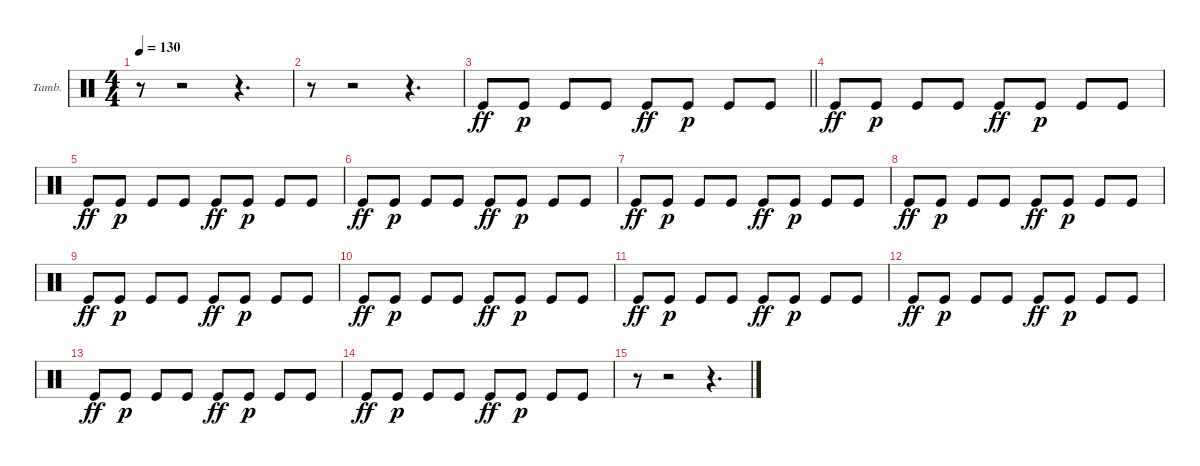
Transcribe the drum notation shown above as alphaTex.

\bracketExtendMode groupsimilarinstruments
\firstSystemTrackNameOrientation horizontal
\otherSystemsTrackNameOrientation horizontal
\track ("Tambourine" "Tamb.") {instrument percussion}
\staff {score}
\articulation defaults
\ts (4 4)
\tempo 130
\clef neutral
\ks c
r.8{dy p} r.2 r.4{d} |
r.8 r.2 r.4{d} |
\barLineRight lightlight "Kick (hit)".8{dy ff} "Kick (hit)".8{dy p} "Kick (hit)".8 "Kick (hit)".8 "Kick (hit)".8{dy ff} "Kick (hit)".8{dy p} "Kick (hit)".8 "Kick (hit)".8
|
"Kick (hit)".8{dy ff} "Kick (hit)".8{dy p} "Kick (hit)".8 "Kick (hit)".8 "Kick (hit)".8{dy ff} "Kick (hit)".8{dy p} "Kick (hit)".8 "Kick (hit)".8 |
"Kick (hit)".8{dy ff} "Kick (hit)".8{dy p} "Kick (hit)".8 "Kick (hit)".8 "Kick (hit)".8{dy ff} "Kick (hit)".8{dy p} "Kick (hit)".8 "Kick (hit)".8 |
"Kick (hit)".8{dy ff} "Kick (hit)".8{dy p} "Kick (hit)".8 "Kick (hit)".8 "Kick (hit)".8{dy ff} "Kick (hit)".8{dy p} "Kick (hit)".8 "Kick (hit)".8 |
"Kick (hit)".8{dy ff} "Kick (hit)".8{dy p} "Kick (hit)".8 "Kick (hit)".8 "Kick (hit)".8{dy ff} "Kick (hit)".8{dy p} "Kick (hit)".8 "Kick (hit)".8 |
"Kick (hit)".8{dy ff} "Kick (hit)".8{dy p} "Kick (hit)".8 "Kick (hit)".8 "Kick (hit)".8{dy ff} "Kick (hit)".8{dy p} "Kick (hit)".8 "Kick (hit)".8 |
"Kick (hit)".8{dy ff} "Kick (hit)".8{dy p} "Kick (hit)".8 "Kick (hit)".8 "Kick (hit)".8{dy ff} "Kick (hit)".8{dy p} "Kick (hit)".8 "Kick (hit)".8 |
"Kick (hit)".8{dy ff} "Kick (hit)".8{dy p} "Kick (hit)".8 "Kick (hit)".8 "Kick (hit)".8{dy ff} "Kick (hit)".8{dy p} "Kick (hit)".8 "Kick (hit)".8 |
"Kick (hit)".8{dy ff} "Kick (hit)".8{dy p} "Kick (hit)".8 "Kick (hit)".8 "Kick (hit)".8{dy ff} "Kick (hit)".8{dy p} "Kick (hit)".8 "Kick (hit)".8 |
"Kick (hit)".8{dy ff} "Kick (hit)".8{dy p} "Kick (hit)".8 "Kick (hit)".8 "Kick (hit)".8{dy ff} "Kick (hit)".8{dy p} "Kick (hit)".8 "Kick (hit)".8 |
"Kick (hit)".8{dy ff} "Kick (hit)".8{dy p} "Kick (hit)".8 "Kick (hit)".8 "Kick (hit)".8{dy ff} "Kick (hit)".8{dy p} "Kick (hit)".8 "Kick (hit)".8 |
"Kick (hit)".8{dy ff} "Kick (hit)".8{dy p} "Kick (hit)".8 "Kick (hit)".8 "Kick (hit)".8{dy ff} "Kick (hit)".8{dy p} "Kick (hit)".8 "Kick (hit)".8 |
r.8 r.2 r.4{d}
